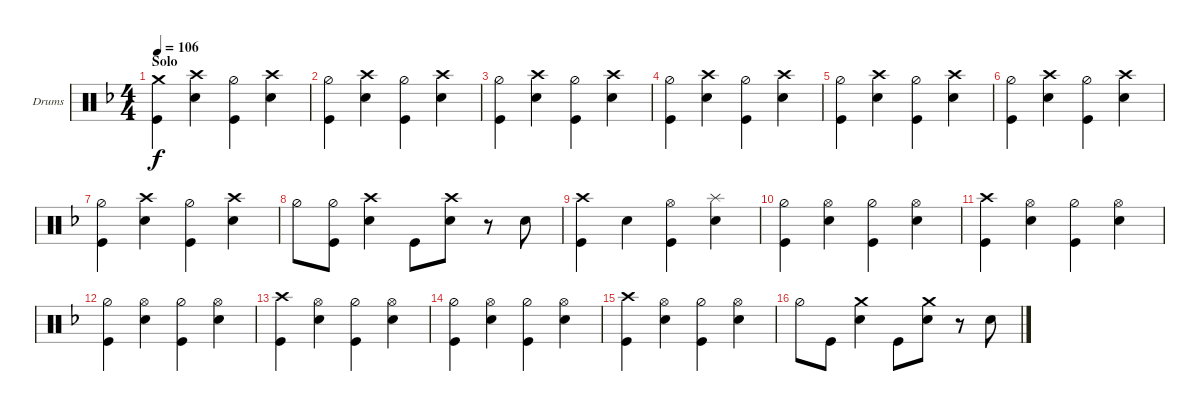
\defaultSystemsLayout 4
\bracketExtendMode groupsimilarinstruments
\firstSystemTrackNameOrientation horizontal
\otherSystemsTrackNameOrientation horizontal
\track ("Simon Wright" "Drums") {instrument percussion}
\staff {score}
\articulation defaults
\ts (4 4)
\section ("" "Solo")
\scale
0.52022
\tempo 106
\accidentals auto
\clef neutral
\ottava regular
\simile none
\ks dminor
("Kick (hit)" "Crash medium (hit)").4{dy f} ("Snare (hit) 2" "Crash high (hit)").4 ("Kick (hit)" "Hi-Hat (half)").4 ("Snare (hit) 2" "Crash high (hit)").4 |
\scale
0.479954 ("Kick (hit)" "Hi-Hat (half)").4 ("Snare (hit) 2" "Crash high (hit)").4 ("Kick (hit)" "Hi-Hat (half)").4 ("Snare (hit) 2" "Crash high (hit)").4 |
("Kick (hit)" "Hi-Hat (half)").4 ("Snare (hit) 2" "Crash high (hit)").4 ("Kick (hit)" "Hi-Hat (half)").4 ("Snare (hit) 2" "Crash high (hit)").4 |
("Kick (hit)" "Hi-Hat (half)").4 ("Snare (hit) 2" "Crash high (hit)").4 ("Kick (hit)" "Hi-Hat (half)").4 ("Snare (hit) 2" "Crash high (hit)").4 |
("Kick (hit)" "Hi-Hat (half)").4 ("Snare (hit) 2" "Crash high (hit)").4 ("Kick (hit)" "Hi-Hat (half)").4 ("Snare (hit) 2" "Crash high (hit)").4 |
("Kick (hit)" "Hi-Hat (half)").4 ("Snare (hit) 2" "Crash high (hit)").4 ("Kick (hit)" "Hi-Hat (half)").4 ("Snare (hit) 2" "Crash high (hit)").4 |
("Kick (hit)" "Hi-Hat (half)").4 ("Snare (hit) 2" "Crash high (hit)").4 ("Kick (hit)" "Hi-Hat (half)").4 ("Snare (hit) 2" "Crash high (hit)").4 |
"Hi-Hat (half)".8 ("Hi-Hat (half)" "Kick (hit)").8 ("Snare (hit) 2" "Crash high (hit)").4 "Kick (hit)".8 ("Snare (hit) 2" "Crash high (hit)").8 r.8 "Snare (hit) 2".8 |
("Kick (hit)" "Crash high (hit)").4 "Snare (hit) 2".4 ("Kick (hit)" "Hi-Hat (open)").4 ("Snare (hit) 2" "Splash (hit)").4 |
("Kick (hit)" "Hi-Hat (half)").4 ("Snare (hit) 2" "Hi-Hat (open)").4 ("Kick (hit)" "Hi-Hat (half)").4 ("Snare (hit) 2" "Hi-Hat (open)").4 |
("Kick (hit)" "Crash high (hit)").4 ("Snare (hit) 2" "Hi-Hat (open)").4 ("Kick (hit)" "Hi-Hat (half)").4 ("Snare (hit) 2" "Hi-Hat (open)").4 |
("Kick (hit)" "Hi-Hat (half)").4 ("Snare (hit) 2" "Hi-Hat (open)").4 ("Kick (hit)" "Hi-Hat (half)").4 ("Snare (hit) 2" "Hi-Hat (open)").4 |
("Kick (hit)" "Crash high (hit)").4 ("Snare (hit) 2" "Hi-Hat (open)").4 ("Kick (hit)" "Hi-Hat (half)").4 ("Snare (hit) 2" "Hi-Hat (open)").4 |
("Kick (hit)" "Hi-Hat (half)").4 ("Snare (hit) 2" "Hi-Hat (open)").4 ("Kick (hit)" "Hi-Hat (half)").4 ("Snare (hit) 2" "Hi-Hat (open)").4 |
("Kick (hit)" "Crash high (hit)").4 ("Snare (hit) 2" "Hi-Hat (open)").4 ("Kick (hit)" "Hi-Hat (half)").4 ("Snare (hit) 2" "Hi-Hat (open)").4 |
"Hi-Hat (half)".8 "Kick (hit)".8 ("Snare (hit) 2" "Crash medium (hit)").4 "Kick (hit)".8 ("Snare (hit) 2" "Crash medium (hit)").8 r.8 "Snare (hit) 2".8
